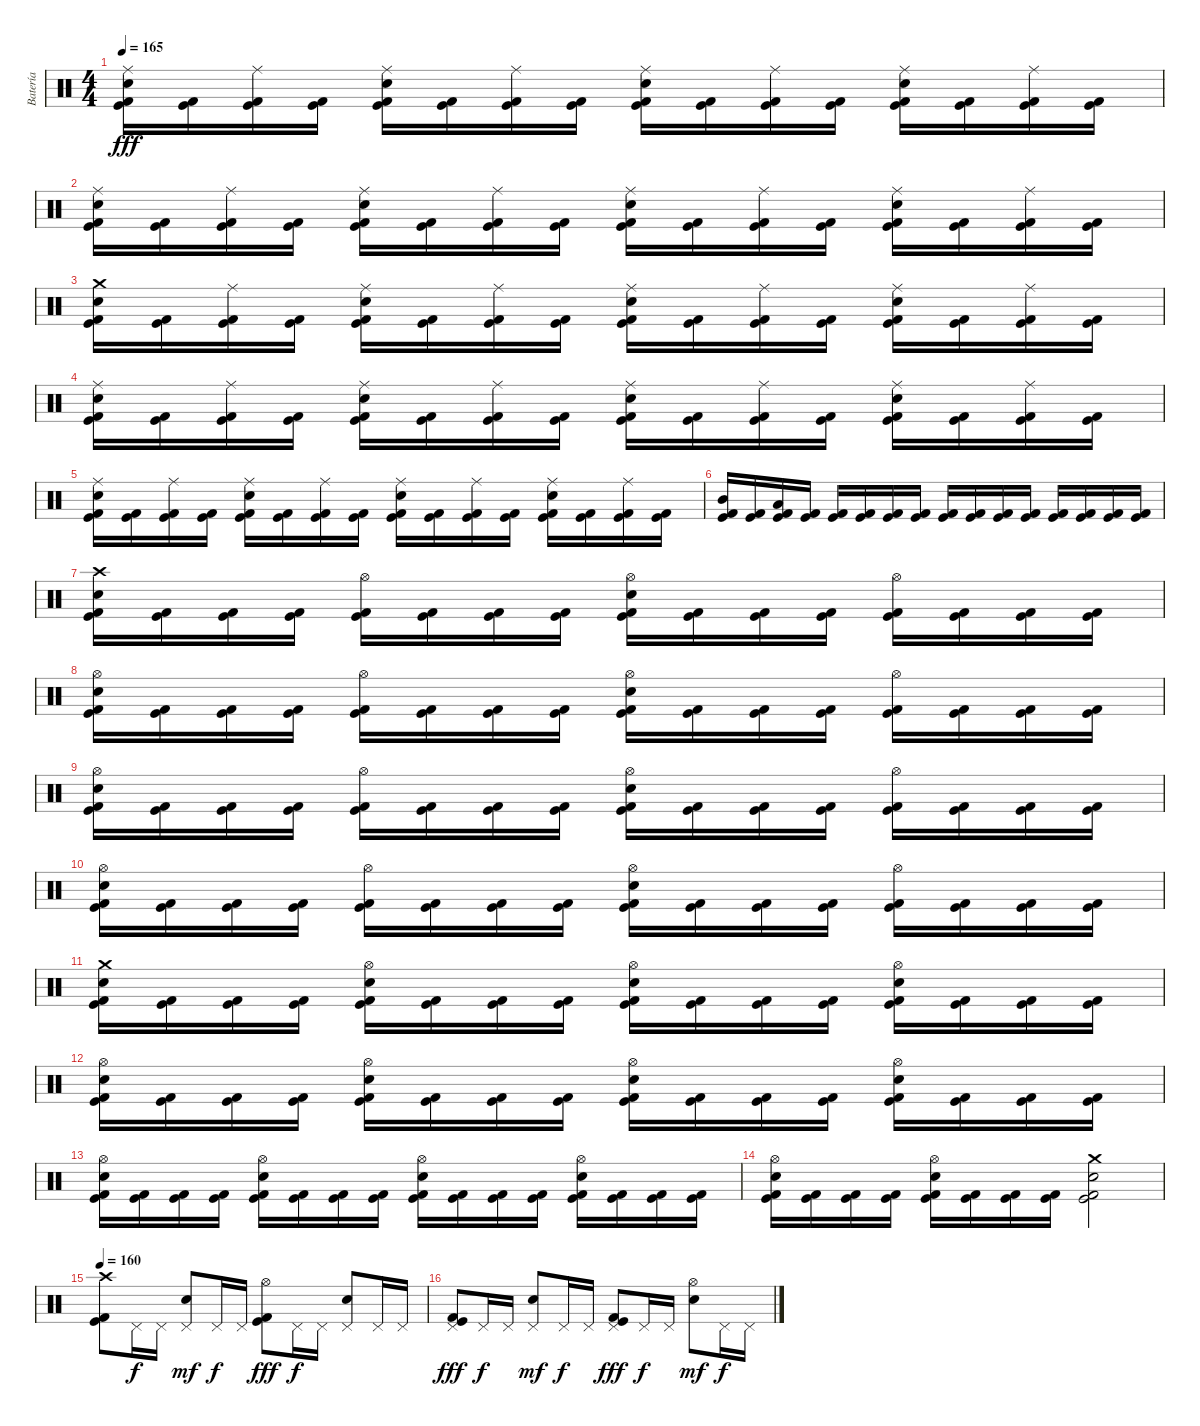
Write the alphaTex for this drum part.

\track ("Batería" "Batería") {instrument percussion}
\staff {score}
\articulation defaults
\ts (4 4)
\tempo 165
\clef neutral
\ks c
("Ride (middle)" "Electric Snare (hit)" "Kick (hit) 2" "Kick (hit)").16{dy fff} ("Kick (hit) 2" "Kick (hit)").16 ("Ride (middle)" "Kick (hit) 2" "Kick (hit)").16 ("Kick (hit) 2" "Kick (hit)").16 ("Ride (middle)" "Electric Snare (hit)" "Kick (hit) 2" "Kick (hit)").16 ("Kick (hit) 2" "Kick (hit)").16 ("Ride (middle)" "Kick (hit) 2" "Kick (hit)").16 ("Kick (hit) 2" "Kick (hit)").16 ("Ride (middle)" "Electric Snare (hit)" "Kick (hit) 2" "Kick (hit)").16 ("Kick (hit) 2" "Kick (hit)").16 ("Ride (middle)" "Kick (hit) 2" "Kick (hit)").16 ("Kick (hit) 2" "Kick (hit)").16 ("Ride (middle)" "Electric Snare (hit)" "Kick (hit) 2" "Kick (hit)").16 ("Kick (hit) 2" "Kick (hit)").16 ("Ride (middle)" "Kick (hit) 2" "Kick (hit)").16 ("Kick (hit) 2" "Kick (hit)").16 |
("Ride (middle)" "Electric Snare (hit)" "Kick (hit) 2" "Kick (hit)").16 ("Kick (hit) 2" "Kick (hit)").16 ("Ride (middle)" "Kick (hit) 2" "Kick (hit)").16 ("Kick (hit) 2" "Kick (hit)").16 ("Ride (middle)" "Electric Snare (hit)" "Kick (hit) 2" "Kick (hit)").16 ("Kick (hit) 2" "Kick (hit)").16 ("Ride (middle)" "Kick (hit) 2" "Kick (hit)").16 ("Kick (hit) 2" "Kick (hit)").16 ("Ride (middle)" "Electric Snare (hit)" "Kick (hit) 2" "Kick (hit)").16 ("Kick (hit) 2" "Kick (hit)").16 ("Ride (middle)" "Kick (hit) 2" "Kick (hit)").16 ("Kick (hit) 2" "Kick (hit)").16 ("Ride (middle)" "Electric Snare (hit)" "Kick (hit) 2" "Kick (hit)").16 ("Kick (hit) 2" "Kick (hit)").16 ("Ride (middle)" "Kick (hit) 2" "Kick (hit)").16 ("Kick (hit) 2" "Kick (hit)").16 |
("Crash medium (hit)" "Electric Snare (hit)" "Kick (hit) 2" "Kick (hit)").16 ("Kick (hit) 2" "Kick (hit)").16 ("Ride (middle)" "Kick (hit) 2" "Kick (hit)").16 ("Kick (hit) 2" "Kick (hit)").16 ("Ride (middle)" "Electric Snare (hit)" "Kick (hit) 2" "Kick (hit)").16 ("Kick (hit) 2" "Kick (hit)").16 ("Ride (middle)" "Kick (hit) 2" "Kick (hit)").16 ("Kick (hit) 2" "Kick (hit)").16 ("Ride (middle)" "Electric Snare (hit)" "Kick (hit) 2" "Kick (hit)").16 ("Kick (hit) 2" "Kick (hit)").16 ("Ride (middle)" "Kick (hit) 2" "Kick (hit)").16 ("Kick (hit) 2" "Kick (hit)").16 ("Ride (middle)" "Electric Snare (hit)" "Kick (hit) 2" "Kick (hit)").16 ("Kick (hit) 2" "Kick (hit)").16 ("Ride (middle)" "Kick (hit) 2" "Kick (hit)").16 ("Kick (hit) 2" "Kick (hit)").16 |
("Ride (middle)" "Electric Snare (hit)" "Kick (hit) 2" "Kick (hit)").16 ("Kick (hit) 2" "Kick (hit)").16 ("Ride (middle)" "Kick (hit) 2" "Kick (hit)").16 ("Kick (hit) 2" "Kick (hit)").16 ("Ride (middle)" "Electric Snare (hit)" "Kick (hit) 2" "Kick (hit)").16 ("Kick (hit) 2" "Kick (hit)").16 ("Ride (middle)" "Kick (hit) 2" "Kick (hit)").16 ("Kick (hit) 2" "Kick (hit)").16 ("Ride (middle)" "Electric Snare (hit)" "Kick (hit) 2" "Kick (hit)").16 ("Kick (hit) 2" "Kick (hit)").16 ("Ride (middle)" "Kick (hit) 2" "Kick (hit)").16 ("Kick (hit) 2" "Kick (hit)").16 ("Ride (middle)" "Electric Snare (hit)" "Kick (hit) 2" "Kick (hit)").16 ("Kick (hit) 2" "Kick (hit)").16 ("Ride (middle)" "Kick (hit) 2" "Kick (hit)").16 ("Kick (hit) 2" "Kick (hit)").16 |
("Ride (middle)" "Electric Snare (hit)" "Kick (hit) 2" "Kick (hit)").16 ("Kick (hit) 2" "Kick (hit)").16 ("Ride (middle)" "Kick (hit) 2" "Kick (hit)").16 ("Kick (hit) 2" "Kick (hit)").16 ("Ride (middle)" "Electric Snare (hit)" "Kick (hit) 2" "Kick (hit)").16 ("Kick (hit) 2" "Kick (hit)").16 ("Ride (middle)" "Kick (hit) 2" "Kick (hit)").16 ("Kick (hit) 2" "Kick (hit)").16 ("Ride (middle)" "Electric Snare (hit)" "Kick (hit) 2" "Kick (hit)").16 ("Kick (hit) 2" "Kick (hit)").16 ("Ride (middle)" "Kick (hit) 2" "Kick (hit)").16 ("Kick (hit) 2" "Kick (hit)").16 ("Ride (middle)" "Electric Snare (hit)" "Kick (hit) 2" "Kick (hit)").16 ("Kick (hit) 2" "Kick (hit)").16 ("Ride (middle)" "Kick (hit) 2" "Kick (hit)").16 ("Kick (hit) 2" "Kick (hit)").16 |
("Mid Tom (hit)" "Kick (hit) 2" "Kick (hit)").16 ("Kick (hit) 2" "Kick (hit)").16 ("Low Tom (hit)" "Kick (hit) 2" "Kick (hit)").16 ("Kick (hit) 2" "Kick (hit)").16 ("Kick (hit) 2" "Kick (hit)").16 ("Kick (hit) 2" "Kick (hit)").16 ("Kick (hit) 2" "Kick (hit)").16 ("Kick (hit) 2" "Kick (hit)").16 ("Kick (hit) 2" "Kick (hit)").16 ("Kick (hit) 2" "Kick (hit)").16 ("Kick (hit) 2" "Kick (hit)").16 ("Kick (hit) 2" "Kick (hit)").16 ("Kick (hit) 2" "Kick (hit)").16 ("Kick (hit) 2" "Kick (hit)").16 ("Kick (hit) 2" "Kick (hit)").16 ("Kick (hit) 2" "Kick (hit)").16 |
("Crash high (hit)" "Electric Snare (hit)" "Kick (hit) 2" "Kick (hit)").16 ("Kick (hit) 2" "Kick (hit)").16 ("Kick (hit) 2" "Kick (hit)").16 ("Kick (hit) 2" "Kick (hit)").16 ("Hi-Hat (open)" "Kick (hit) 2" "Kick (hit)").16 ("Kick (hit) 2" "Kick (hit)").16 ("Kick (hit) 2" "Kick (hit)").16 ("Kick (hit) 2" "Kick (hit)").16 ("Hi-Hat (open)" "Electric Snare (hit)" "Kick (hit) 2" "Kick (hit)").16 ("Kick (hit) 2" "Kick (hit)").16 ("Kick (hit) 2" "Kick (hit)").16 ("Kick (hit) 2" "Kick (hit)").16 ("Hi-Hat (open)" "Kick (hit) 2" "Kick (hit)").16 ("Kick (hit) 2" "Kick (hit)").16 ("Kick (hit) 2" "Kick (hit)").16 ("Kick (hit) 2" "Kick (hit)").16 |
("Hi-Hat (open)" "Electric Snare (hit)" "Kick (hit) 2" "Kick (hit)").16 ("Kick (hit) 2" "Kick (hit)").16 ("Kick (hit) 2" "Kick (hit)").16 ("Kick (hit) 2" "Kick (hit)").16 ("Hi-Hat (open)" "Kick (hit) 2" "Kick (hit)").16 ("Kick (hit) 2" "Kick (hit)").16 ("Kick (hit) 2" "Kick (hit)").16 ("Kick (hit) 2" "Kick (hit)").16 ("Hi-Hat (open)" "Electric Snare (hit)" "Kick (hit) 2" "Kick (hit)").16 ("Kick (hit) 2" "Kick (hit)").16 ("Kick (hit) 2" "Kick (hit)").16 ("Kick (hit) 2" "Kick (hit)").16 ("Hi-Hat (open)" "Kick (hit) 2" "Kick (hit)").16 ("Kick (hit) 2" "Kick (hit)").16 ("Kick (hit) 2" "Kick (hit)").16 ("Kick (hit) 2" "Kick (hit)").16 |
("Hi-Hat (open)" "Electric Snare (hit)" "Kick (hit) 2" "Kick (hit)").16 ("Kick (hit) 2" "Kick (hit)").16 ("Kick (hit) 2" "Kick (hit)").16 ("Kick (hit) 2" "Kick (hit)").16 ("Hi-Hat (open)" "Kick (hit) 2" "Kick (hit)").16 ("Kick (hit) 2" "Kick (hit)").16 ("Kick (hit) 2" "Kick (hit)").16 ("Kick (hit) 2" "Kick (hit)").16 ("Hi-Hat (open)" "Electric Snare (hit)" "Kick (hit) 2" "Kick (hit)").16 ("Kick (hit) 2" "Kick (hit)").16 ("Kick (hit) 2" "Kick (hit)").16 ("Kick (hit) 2" "Kick (hit)").16 ("Hi-Hat (open)" "Kick (hit) 2" "Kick (hit)").16 ("Kick (hit) 2" "Kick (hit)").16 ("Kick (hit) 2" "Kick (hit)").16 ("Kick (hit) 2" "Kick (hit)").16 |
("Hi-Hat (open)" "Electric Snare (hit)" "Kick (hit) 2" "Kick (hit)").16 ("Kick (hit) 2" "Kick (hit)").16 ("Kick (hit) 2" "Kick (hit)").16 ("Kick (hit) 2" "Kick (hit)").16 ("Hi-Hat (open)" "Kick (hit) 2" "Kick (hit)").16 ("Kick (hit) 2" "Kick (hit)").16 ("Kick (hit) 2" "Kick (hit)").16 ("Kick (hit) 2" "Kick (hit)").16 ("Hi-Hat (open)" "Electric Snare (hit)" "Kick (hit) 2" "Kick (hit)").16 ("Kick (hit) 2" "Kick (hit)").16 ("Kick (hit) 2" "Kick (hit)").16 ("Kick (hit) 2" "Kick (hit)").16 ("Hi-Hat (open)" "Kick (hit) 2" "Kick (hit)").16 ("Kick (hit) 2" "Kick (hit)").16 ("Kick (hit) 2" "Kick (hit)").16 ("Kick (hit) 2" "Kick (hit)").16 |
("Crash medium (hit)" "Electric Snare (hit)" "Kick (hit) 2" "Kick (hit)").16 ("Kick (hit) 2" "Kick (hit)").16 ("Kick (hit) 2" "Kick (hit)").16 ("Kick (hit) 2" "Kick (hit)").16 ("Hi-Hat (open)" "Electric Snare (hit)" "Kick (hit) 2" "Kick (hit)").16 ("Kick (hit) 2" "Kick (hit)").16 ("Kick (hit) 2" "Kick (hit)").16 ("Kick (hit) 2" "Kick (hit)").16 ("Hi-Hat (open)" "Electric Snare (hit)" "Kick (hit) 2" "Kick (hit)").16 ("Kick (hit) 2" "Kick (hit)").16 ("Kick (hit) 2" "Kick (hit)").16 ("Kick (hit) 2" "Kick (hit)").16 ("Hi-Hat (open)" "Electric Snare (hit)" "Kick (hit) 2" "Kick (hit)").16 ("Kick (hit) 2" "Kick (hit)").16 ("Kick (hit) 2" "Kick (hit)").16 ("Kick (hit) 2" "Kick (hit)").16 |
("Hi-Hat (open)" "Electric Snare (hit)" "Kick (hit) 2" "Kick (hit)").16 ("Kick (hit) 2" "Kick (hit)").16 ("Kick (hit) 2" "Kick (hit)").16 ("Kick (hit) 2" "Kick (hit)").16 ("Hi-Hat (open)" "Electric Snare (hit)" "Kick (hit) 2" "Kick (hit)").16 ("Kick (hit) 2" "Kick (hit)").16 ("Kick (hit) 2" "Kick (hit)").16 ("Kick (hit) 2" "Kick (hit)").16 ("Hi-Hat (open)" "Electric Snare (hit)" "Kick (hit) 2" "Kick (hit)").16 ("Kick (hit) 2" "Kick (hit)").16 ("Kick (hit) 2" "Kick (hit)").16 ("Kick (hit) 2" "Kick (hit)").16 ("Hi-Hat (open)" "Electric Snare (hit)" "Kick (hit) 2" "Kick (hit)").16 ("Kick (hit) 2" "Kick (hit)").16 ("Kick (hit) 2" "Kick (hit)").16 ("Kick (hit) 2" "Kick (hit)").16 |
("Hi-Hat (open)" "Electric Snare (hit)" "Kick (hit) 2" "Kick (hit)").16 ("Kick (hit) 2" "Kick (hit)").16 ("Kick (hit) 2" "Kick (hit)").16 ("Kick (hit) 2" "Kick (hit)").16 ("Hi-Hat (open)" "Electric Snare (hit)" "Kick (hit) 2" "Kick (hit)").16 ("Kick (hit) 2" "Kick (hit)").16 ("Kick (hit) 2" "Kick (hit)").16 ("Kick (hit) 2" "Kick (hit)").16 ("Hi-Hat (open)" "Electric Snare (hit)" "Kick (hit) 2" "Kick (hit)").16 ("Kick (hit) 2" "Kick (hit)").16 ("Kick (hit) 2" "Kick (hit)").16 ("Kick (hit) 2" "Kick (hit)").16 ("Hi-Hat (open)" "Electric Snare (hit)" "Kick (hit) 2" "Kick (hit)").16 ("Kick (hit) 2" "Kick (hit)").16 ("Kick (hit) 2" "Kick (hit)").16 ("Kick (hit) 2" "Kick (hit)").16 |
("Hi-Hat (open)" "Electric Snare (hit)" "Kick (hit) 2" "Kick (hit)").16 ("Kick (hit) 2" "Kick (hit)").16 ("Kick (hit) 2" "Kick (hit)").16 ("Kick (hit) 2" "Kick (hit)").16 ("Hi-Hat (open)" "Electric Snare (hit)" "Kick (hit) 2" "Kick (hit)").16 ("Kick (hit) 2" "Kick (hit)").16 ("Kick (hit) 2" "Kick (hit)").16 ("Kick (hit) 2" "Kick (hit)").16 ("Crash medium (hit)" "Electric Snare (hit)" "Kick (hit) 2" "Kick (hit)").2 |
\tempo 160
("Crash high (hit)" "Kick (hit) 2" "Kick (hit)").8 "Pedal Hi-Hat (hit)".16{dy f} "Pedal Hi-Hat (hit)".16 ("Pedal Hi-Hat (hit)" "Electric Snare (hit)").8{dy mf} "Pedal Hi-Hat (hit)".16{dy f} "Pedal Hi-Hat (hit)".16 ("Hi-Hat (open)" "Kick (hit) 2" "Kick (hit)").8{dy fff} "Pedal Hi-Hat (hit)".16{dy f} "Pedal Hi-Hat (hit)".16 ("Pedal Hi-Hat (hit)" "Electric Snare (hit)").8 "Pedal Hi-Hat (hit)".16 "Pedal Hi-Hat (hit)".16 |
("Pedal Hi-Hat (hit)" "Kick (hit) 2" "Kick (hit)").8{dy fff} "Pedal Hi-Hat (hit)".16{dy f} "Pedal Hi-Hat (hit)".16 ("Pedal Hi-Hat (hit)" "Electric Snare (hit)").8{dy mf} "Pedal Hi-Hat (hit)".16{dy f} "Pedal Hi-Hat (hit)".16 ("Pedal Hi-Hat (hit)" "Kick (hit) 2" "Kick (hit)").8{dy fff} "Pedal Hi-Hat (hit)".16{dy f} "Pedal Hi-Hat (hit)".16 ("Hi-Hat (open)" "Electric Snare (hit)").8{dy mf} "Pedal Hi-Hat (hit)".16{dy f} "Pedal Hi-Hat (hit)".16
